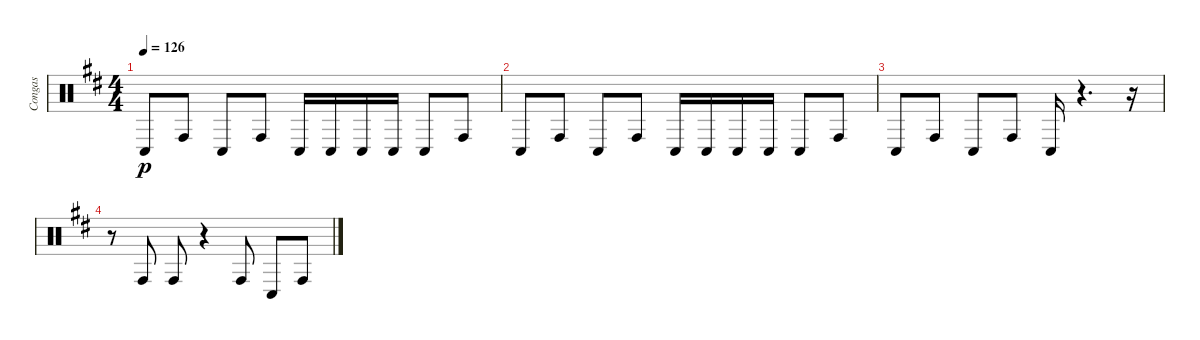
\track ("Congas" "Congas") {instrument percussion}
\staff {score}
\articulation defaults
\ts (4 4)
\tempo 126
\clef neutral
\ks bminor "Conga low (hit)".8{dy p} "Conga high (hit)".8 "Conga low (hit)".8 "Conga high (hit)".8 "Conga low (hit)".16 "Conga low (hit)".16 "Conga low (hit)".16 "Conga low (hit)".16 "Conga low (hit)".8 "Conga high (hit)".8
|
"Conga low (hit)".8 "Conga high (hit)".8 "Conga low (hit)".8 "Conga high (hit)".8 "Conga low (hit)".16 "Conga low (hit)".16 "Conga low (hit)".16 "Conga low (hit)".16 "Conga low (hit)".8 "Conga high (hit)".8 |
"Conga low (hit)".8 "Conga high (hit)".8 "Conga low (hit)".8 "Conga high (hit)".8 "Conga low (hit)".16 r.4{d} r.16 |
r.8 "Conga high (hit)".8 "Conga high (hit)".8 r.4 "Conga high (hit)".8 "Conga low (hit)".8 "Conga high (hit)".8
